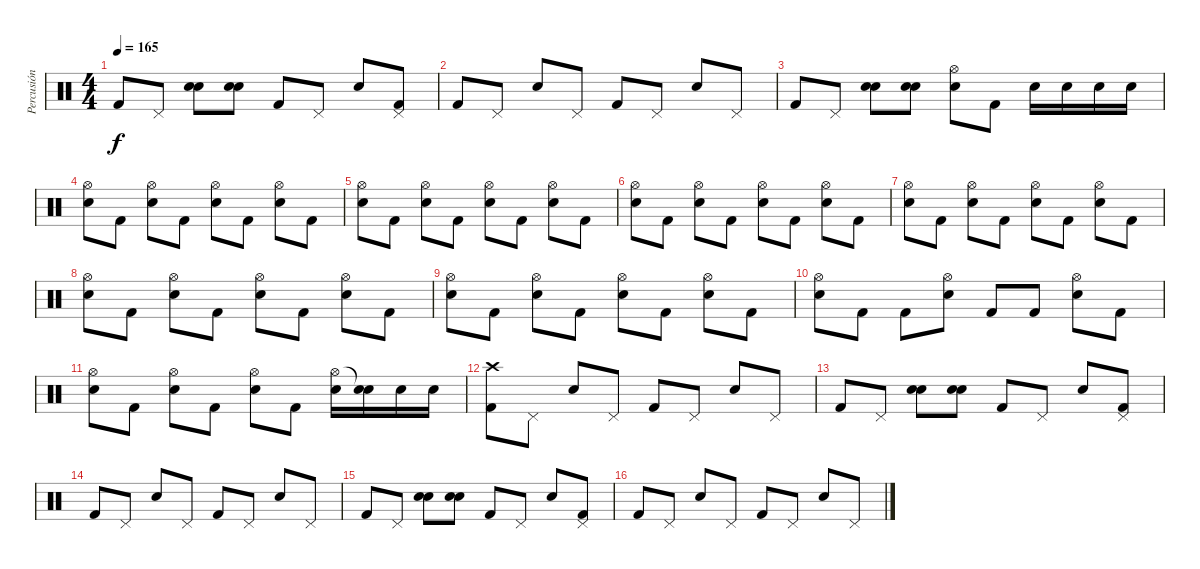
\track ("Percusión" "Percusión") {instrument percussion}
\staff {score}
\articulation defaults
\ts (4 4)
\tempo 165
\clef neutral
\ks c "Kick (hit) 2".8{dy f} "Pedal Hi-Hat (hit)".8
("Snare (hit) 2" "Snare (hit) 2").8 ("Snare (hit) 2" "Snare (hit) 2").8 "Kick (hit) 2".8 "Pedal Hi-Hat (hit)".8 "Snare (hit) 2".8 ("Kick (hit) 2" "Pedal Hi-Hat (hit)").8 |
"Kick (hit) 2".8 "Pedal Hi-Hat (hit)".8 "Snare (hit) 2".8 "Pedal Hi-Hat (hit)".8 "Kick (hit) 2".8 "Pedal Hi-Hat (hit)".8 "Snare (hit) 2".8 "Pedal Hi-Hat (hit)".8 |
"Kick (hit) 2".8 "Pedal Hi-Hat (hit)".8 ("Snare (hit) 2" "Snare (hit) 2").8 ("Snare (hit) 2" "Snare (hit) 2").8 ("Hi-Hat (open)" "Snare (hit) 2").8 "Kick (hit) 2".8 "Snare (hit) 2".16 "Snare (hit) 2".16 "Snare (hit) 2".16 "Snare (hit) 2".16 |
("Hi-Hat (open)" "Snare (hit) 2").8 "Kick (hit) 2".8 ("Hi-Hat (open)" "Snare (hit) 2").8 "Kick (hit) 2".8 ("Hi-Hat (open)" "Snare (hit) 2").8 "Kick (hit) 2".8 ("Hi-Hat (open)" "Snare (hit) 2").8 "Kick (hit) 2".8 |
("Hi-Hat (open)" "Snare (hit) 2").8 "Kick (hit) 2".8 ("Hi-Hat (open)" "Snare (hit) 2").8 "Kick (hit) 2".8 ("Hi-Hat (open)" "Snare (hit) 2").8 "Kick (hit) 2".8 ("Hi-Hat (open)" "Snare (hit) 2").8 "Kick (hit) 2".8 |
("Hi-Hat (open)" "Snare (hit) 2").8 "Kick (hit) 2".8 ("Hi-Hat (open)" "Snare (hit) 2").8 "Kick (hit) 2".8 ("Hi-Hat (open)" "Snare (hit) 2").8 "Kick (hit) 2".8 ("Hi-Hat (open)" "Snare (hit) 2").8 "Kick (hit) 2".8 |
("Hi-Hat (open)" "Snare (hit) 2").8 "Kick (hit) 2".8 ("Hi-Hat (open)" "Snare (hit) 2").8 "Kick (hit) 2".8 ("Hi-Hat (open)" "Snare (hit) 2").8 "Kick (hit) 2".8 ("Hi-Hat (open)" "Snare (hit) 2").8 "Kick (hit) 2".8 |
("Hi-Hat (open)" "Snare (hit) 2").8 "Kick (hit) 2".8 ("Hi-Hat (open)" "Snare (hit) 2").8 "Kick (hit) 2".8 ("Hi-Hat (open)" "Snare (hit) 2").8 "Kick (hit) 2".8 ("Hi-Hat (open)" "Snare (hit) 2").8 "Kick (hit) 2".8 |
("Hi-Hat (open)" "Snare (hit) 2").8 "Kick (hit) 2".8 ("Hi-Hat (open)" "Snare (hit) 2").8 "Kick (hit) 2".8 ("Hi-Hat (open)" "Snare (hit) 2").8 "Kick (hit) 2".8 ("Hi-Hat (open)" "Snare (hit) 2").8 "Kick (hit) 2".8 |
("Hi-Hat (open)" "Snare (hit) 2").8 "Kick (hit) 2".8 "Kick (hit) 2".8 ("Hi-Hat (open)" "Snare (hit) 2").8 "Kick (hit) 2".8 "Kick (hit) 2".8 ("Hi-Hat (open)" "Snare (hit) 2").8 "Kick (hit) 2".8 |
("Hi-Hat (open)" "Snare (hit) 2").8 "Kick (hit) 2".8 ("Hi-Hat (open)" "Snare (hit) 2").8 "Kick (hit) 2".8 ("Hi-Hat (open)" "Snare (hit) 2").8 "Kick (hit) 2".8 ("Hi-Hat (open)" "Snare (hit) 2").16 ("Snare (hit)"{t} "Snare (hit) 2").16 "Snare (hit) 2".16 "Snare (hit) 2".16 |
("Crash high (hit)" "Kick (hit) 2").8 "Pedal Hi-Hat (hit)".8 "Snare (hit) 2".8 "Pedal Hi-Hat (hit)".8 "Kick (hit) 2".8 "Pedal Hi-Hat (hit)".8 "Snare (hit) 2".8 "Pedal Hi-Hat (hit)".8 |
"Kick (hit) 2".8 "Pedal Hi-Hat (hit)".8 ("Snare (hit) 2" "Snare (hit) 2").8 ("Snare (hit) 2" "Snare (hit) 2").8 "Kick (hit) 2".8 "Pedal Hi-Hat (hit)".8 "Snare (hit) 2".8 ("Kick (hit) 2" "Pedal Hi-Hat (hit)").8 |
"Kick (hit) 2".8 "Pedal Hi-Hat (hit)".8 "Snare (hit) 2".8 "Pedal Hi-Hat (hit)".8 "Kick (hit) 2".8 "Pedal Hi-Hat (hit)".8 "Snare (hit) 2".8 "Pedal Hi-Hat (hit)".8 |
"Kick (hit) 2".8 "Pedal Hi-Hat (hit)".8 ("Snare (hit) 2" "Snare (hit) 2").8 ("Snare (hit) 2" "Snare (hit) 2").8 "Kick (hit) 2".8 "Pedal Hi-Hat (hit)".8 "Snare (hit) 2".8 ("Kick (hit) 2" "Pedal Hi-Hat (hit)").8 |
"Kick (hit) 2".8 "Pedal Hi-Hat (hit)".8 "Snare (hit) 2".8 "Pedal Hi-Hat (hit)".8 "Kick (hit) 2".8 "Pedal Hi-Hat (hit)".8 "Snare (hit) 2".8 "Pedal Hi-Hat (hit)".8
